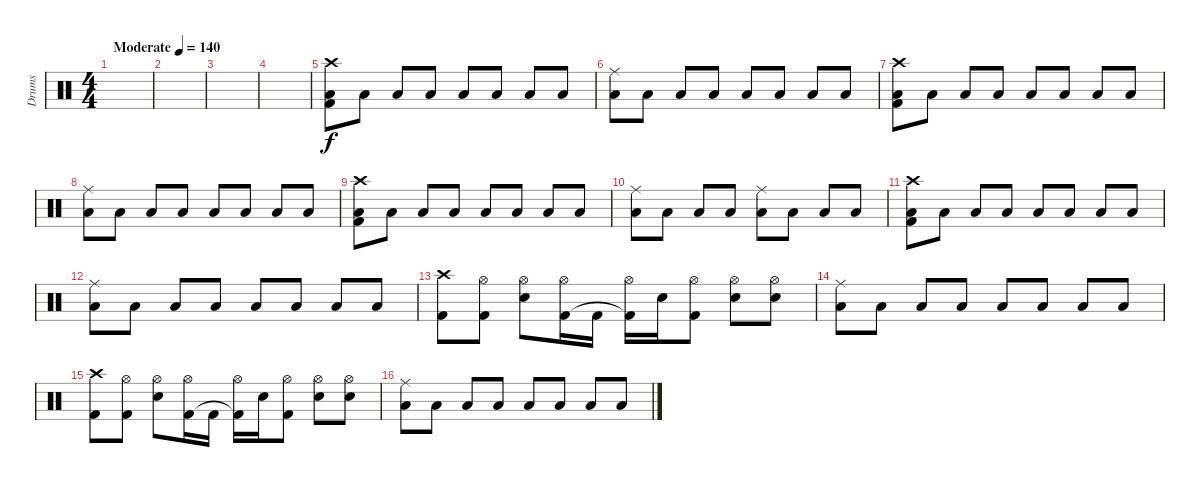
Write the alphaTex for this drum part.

\track ("Drums" "Drums") {instrument percussion}
\staff {score}
\articulation defaults
\ts (4 4)
\tempo (140 "Moderate")
\clef neutral
\ks c
|
|
|
|
("Crash high (hit)" "Low Tom (hit)" "Kick (hit) 2").8 "Low Tom (hit)".8 "Low Tom (hit)".8 "Low Tom (hit)".8 "Low Tom (hit)".8 "Low Tom (hit)".8 "Low Tom (hit)".8 "Low Tom (hit)".8 |
("Ride (middle)" "Low Tom (hit)").8 "Low Tom (hit)".8 "Low Tom (hit)".8 "Low Tom (hit)".8 "Low Tom (hit)".8 "Low Tom (hit)".8 "Low Tom (hit)".8 "Low Tom (hit)".8 |
("Crash high (hit)" "Low Tom (hit)" "Kick (hit) 2").8 "Low Tom (hit)".8 "Low Tom (hit)".8 "Low Tom (hit)".8 "Low Tom (hit)".8 "Low Tom (hit)".8 "Low Tom (hit)".8 "Low Tom (hit)".8 |
("Ride (middle)" "Low Tom (hit)").8 "Low Tom (hit)".8 "Low Tom (hit)".8 "Low Tom (hit)".8 "Low Tom (hit)".8 "Low Tom (hit)".8 "Low Tom (hit)".8 "Low Tom (hit)".8 |
("Crash high (hit)" "Low Tom (hit)" "Kick (hit) 2").8 "Low Tom (hit)".8 "Low Tom (hit)".8 "Low Tom (hit)".8 "Low Tom (hit)".8 "Low Tom (hit)".8 "Low Tom (hit)".8 "Low Tom (hit)".8 |
("Ride (middle)" "Low Tom (hit)").8 "Low Tom (hit)".8 "Low Tom (hit)".8 "Low Tom (hit)".8 ("Ride (middle)" "Low Tom (hit)").8 "Low Tom (hit)".8 "Low Tom (hit)".8 "Low Tom (hit)".8 |
("Crash high (hit)" "Low Tom (hit)" "Kick (hit) 2").8 "Low Tom (hit)".8 "Low Tom (hit)".8 "Low Tom (hit)".8 "Low Tom (hit)".8 "Low Tom (hit)".8 "Low Tom (hit)".8 "Low Tom (hit)".8 |
("Ride (middle)" "Low Tom (hit)").8 "Low Tom (hit)".8 "Low Tom (hit)".8 "Low Tom (hit)".8 "Low Tom (hit)".8 "Low Tom (hit)".8 "Low Tom (hit)".8 "Low Tom (hit)".8 |
("Crash high (hit)" "Kick (hit) 2").8 ("Hi-Hat (open)" "Kick (hit) 2").8 ("Hi-Hat (open)" "Electric Snare (hit)").8 ("Hi-Hat (open)" "Kick (hit) 2").16 "Kick (hit) 2".16 ("Hi-Hat (open)" "Kick (hit) 2"{t}).16 "Electric Snare (hit)".16 ("Hi-Hat (open)" "Kick (hit) 2").8 ("Hi-Hat (open)" "Electric Snare (hit)").8 ("Hi-Hat (open)" "Electric Snare (hit)").8 |
("Ride (middle)" "Low Tom (hit)").8 "Low Tom (hit)".8 "Low Tom (hit)".8 "Low Tom (hit)".8 "Low Tom (hit)".8 "Low Tom (hit)".8 "Low Tom (hit)".8 "Low Tom (hit)".8 |
("Crash high (hit)" "Kick (hit) 2").8 ("Hi-Hat (open)" "Kick (hit) 2").8 ("Hi-Hat (open)" "Electric Snare (hit)").8 ("Hi-Hat (open)" "Kick (hit) 2").16 "Kick (hit) 2".16 ("Hi-Hat (open)" "Kick (hit) 2"{t}).16 "Electric Snare (hit)".16 ("Hi-Hat (open)" "Kick (hit) 2").8 ("Hi-Hat (open)" "Electric Snare (hit)").8 ("Hi-Hat (open)" "Electric Snare (hit)").8 |
("Ride (middle)" "Low Tom (hit)").8 "Low Tom (hit)".8 "Low Tom (hit)".8 "Low Tom (hit)".8 "Low Tom (hit)".8 "Low Tom (hit)".8 "Low Tom (hit)".8 "Low Tom (hit)".8
